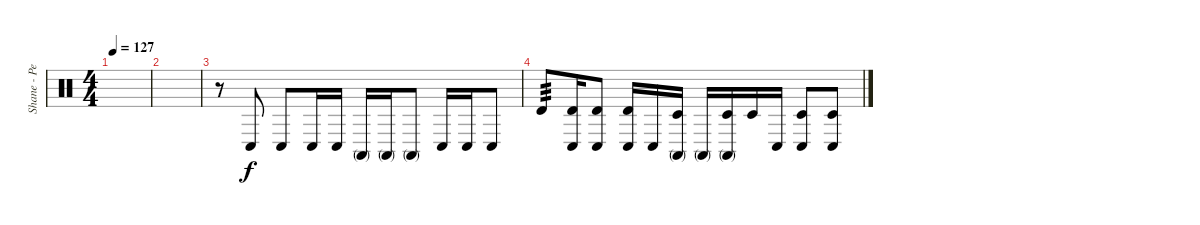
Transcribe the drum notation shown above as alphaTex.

\track ("Shane - Percussion" "Shane - Pe") {instrument percussion}
\staff {score}
\articulation defaults
\ts (4 4)
\tempo 127
\clef neutral
\ks c
|
|
r.8 "Conga low (hit)".8 "Conga low (hit)".8 "Conga low (hit)".16 "Conga low (hit)".16 "Conga high (mute)".16 "Conga high (mute)".16 "Conga high (mute)".8 "Conga low (hit)".16 "Conga low (hit)".16 "Conga low (hit)".8 |
"Timbale high (hit)".8{tp 3} ("Timbale high (hit)" "Conga low (hit)").16 ("Timbale high (hit)" "Conga low (hit)").8 ("Timbale high (hit)" "Conga low (hit)").16 "Conga low (hit)".16 ("Timbale low (hit)" "Conga high (mute)").16 "Conga high (mute)".16 ("Timbale low (hit)" "Conga high (mute)").16 "Timbale low (hit)".16 "Conga low (hit)".16 ("Timbale low (hit)" "Conga low (hit)").8 ("Timbale low (hit)" "Conga low (hit)").8
